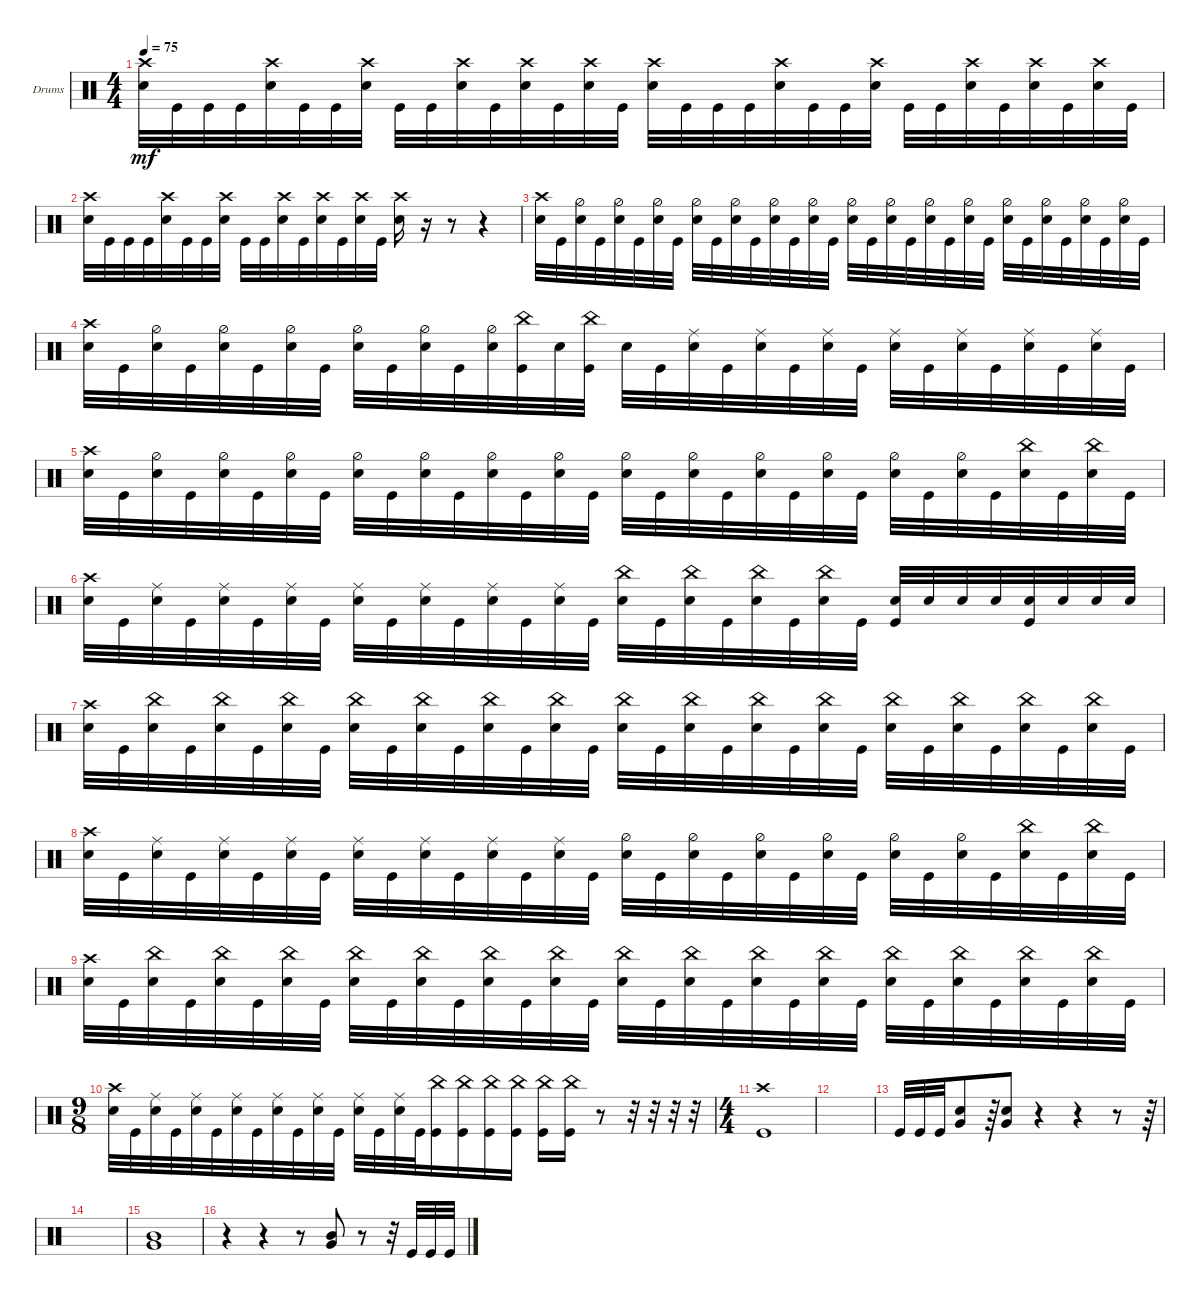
\defaultSystemsLayout 4
\bracketExtendMode groupsimilarinstruments
\firstSystemTrackNameOrientation horizontal
\otherSystemsTrackNameOrientation horizontal
\track ("Drumkit" "Drums") {instrument percussion}
\staff {score}
\articulation defaults
\ts (4 4)
\tempo 75
\clef neutral
\ks c
("Snare (hit) 2" "Crash high (hit)").32{dy mf} "Kick (hit)".32 "Kick (hit)".32 "Kick (hit)".32 ("Snare (hit) 2" "Crash high (hit)").32 "Kick (hit)".32 "Kick (hit)".32 ("Snare (hit) 2" "Crash high (hit)").32 "Kick (hit)".32 "Kick (hit)".32 ("Snare (hit) 2" "Crash high (hit)").32 "Kick (hit)".32 ("Snare (hit) 2" "Crash high (hit)").32 "Kick (hit)".32 ("Snare (hit) 2" "Crash high (hit)").32 "Kick (hit)".32 ("Snare (hit) 2" "Crash high (hit)").32 "Kick (hit)".32 "Kick (hit)".32 "Kick (hit)".32 ("Snare (hit) 2" "Crash high (hit)").32 "Kick (hit)".32 "Kick (hit)".32 ("Snare (hit) 2" "Crash high (hit)").32 "Kick (hit)".32 "Kick (hit)".32 ("Snare (hit) 2" "Crash high (hit)").32 "Kick (hit)".32 ("Snare (hit) 2" "Crash high (hit)").32 "Kick (hit)".32 ("Snare (hit) 2" "Crash high (hit)").32 "Kick (hit)".32 |
("Snare (hit) 2" "Crash high (hit)").32 "Kick (hit)".32 "Kick (hit)".32 "Kick (hit)".32 ("Snare (hit) 2" "Crash high (hit)").32 "Kick (hit)".32 "Kick (hit)".32 ("Snare (hit) 2" "Crash high (hit)").32 "Kick (hit)".32 "Kick (hit)".32 ("Snare (hit) 2" "Crash high (hit)").32 "Kick (hit)".32 ("Snare (hit) 2" "Crash high (hit)").32 "Kick (hit)".32 ("Snare (hit) 2" "Crash high (hit)").32 "Kick (hit)".32 ("Snare (hit) 2" "Crash high (hit)").16 r.16 r.8 r.4 |
("Snare (hit) 2" "Crash high (hit)").32 "Kick (hit)".32 ("Snare (hit) 2" "Hi-Hat (half)").32 "Kick (hit)".32 ("Snare (hit) 2" "Hi-Hat (half)").32 "Kick (hit)".32 ("Snare (hit) 2" "Hi-Hat (half)").32 "Kick (hit)".32 ("Snare (hit) 2" "Hi-Hat (half)").32 "Kick (hit)".32 ("Snare (hit) 2" "Hi-Hat (half)").32 "Kick (hit)".32 ("Snare (hit) 2" "Hi-Hat (half)").32 "Kick (hit)".32 ("Snare (hit) 2" "Hi-Hat (half)").32 "Kick (hit)".32 ("Snare (hit) 2" "Hi-Hat (half)").32 "Kick (hit)".32 ("Snare (hit) 2" "Hi-Hat (half)").32 "Kick (hit)".32 ("Snare (hit) 2" "Hi-Hat (half)").32 "Kick (hit)".32 ("Snare (hit) 2" "Hi-Hat (half)").32 "Kick (hit)".32 ("Snare (hit) 2" "Hi-Hat (half)").32 "Kick (hit)".32 ("Snare (hit) 2" "Hi-Hat (half)").32 "Kick (hit)".32 ("Snare (hit) 2" "Hi-Hat (half)").32 "Kick (hit)".32 ("Snare (hit) 2" "Hi-Hat (half)").32 "Kick (hit)".32 |
("Snare (hit) 2" "Crash high (hit)").32 "Kick (hit)".32 ("Snare (hit) 2" "Hi-Hat (half)").32 "Kick (hit)".32 ("Snare (hit) 2" "Hi-Hat (half)").32 "Kick (hit)".32 ("Snare (hit) 2" "Hi-Hat (half)").32 "Kick (hit)".32 ("Snare (hit) 2" "Hi-Hat (half)").32 "Kick (hit)".32 ("Snare (hit) 2" "Hi-Hat (half)").32 "Kick (hit)".32 ("Snare (hit) 2" "Hi-Hat (half)").32 ("Kick (hit)" "China (hit)").32 "Snare (hit) 2".32 ("Kick (hit)" "China (hit)").32 "Snare (hit) 2".32 "Kick (hit)".32 ("Snare (hit) 2" "Ride (middle)").32 "Kick (hit)".32 ("Snare (hit) 2" "Ride (middle)").32 "Kick (hit)".32 ("Snare (hit) 2" "Ride (middle)").32 "Kick (hit)".32 ("Snare (hit) 2" "Ride (middle)").32 "Kick (hit)".32 ("Snare (hit) 2" "Ride (middle)").32 "Kick (hit)".32 ("Snare (hit) 2" "Ride (middle)").32 "Kick (hit)".32 ("Snare (hit) 2" "Ride (middle)").32 "Kick (hit)".32 |
("Snare (hit) 2" "Crash high (hit)").32 "Kick (hit)".32 ("Snare (hit) 2" "Hi-Hat (half)").32 "Kick (hit)".32 ("Snare (hit) 2" "Hi-Hat (half)").32 "Kick (hit)".32 ("Snare (hit) 2" "Hi-Hat (half)").32 "Kick (hit)".32 ("Snare (hit) 2" "Hi-Hat (half)").32 "Kick (hit)".32 ("Snare (hit) 2" "Hi-Hat (half)").32 "Kick (hit)".32 ("Snare (hit) 2" "Hi-Hat (half)").32 "Kick (hit)".32 ("Snare (hit) 2" "Hi-Hat (half)").32 "Kick (hit)".32 ("Snare (hit) 2" "Hi-Hat (half)").32 "Kick (hit)".32 ("Snare (hit) 2" "Hi-Hat (half)").32 "Kick (hit)".32 ("Snare (hit) 2" "Hi-Hat (half)").32 "Kick (hit)".32 ("Snare (hit) 2" "Hi-Hat (half)").32 "Kick (hit)".32 ("Snare (hit) 2" "Hi-Hat (half)").32 "Kick (hit)".32 ("Snare (hit) 2" "Hi-Hat (half)").32 "Kick (hit)".32 ("Snare (hit) 2" "China (hit)").32 "Kick (hit)".32 ("Snare (hit) 2" "China (hit)").32 "Kick (hit)".32 |
("Snare (hit) 2" "Crash high (hit)").32 "Kick (hit)".32 ("Snare (hit) 2" "Ride (middle)").32 "Kick (hit)".32 ("Snare (hit) 2" "Ride (middle)").32 "Kick (hit)".32 ("Snare (hit) 2" "Ride (middle)").32 "Kick (hit)".32 ("Snare (hit) 2" "Ride (middle)").32 "Kick (hit)".32 ("Snare (hit) 2" "Ride (middle)").32 "Kick (hit)".32 ("Snare (hit) 2" "Ride (middle)").32 "Kick (hit)".32 ("Snare (hit) 2" "Ride (middle)").32 "Kick (hit)".32 ("Snare (hit) 2" "China (hit)").32 "Kick (hit)".32 ("Snare (hit) 2" "China (hit)").32 "Kick (hit)".32 ("Snare (hit) 2" "China (hit)").32 "Kick (hit)".32 ("Snare (hit) 2" "China (hit)").32 "Kick (hit)".32 ("Snare (hit) 2" "Kick (hit)").32 "Snare (hit) 2".32 "Snare (hit) 2".32 "Snare (hit) 2".32 ("Snare (hit) 2" "Kick (hit)").32 "Snare (hit) 2".32 "Snare (hit) 2".32 "Snare (hit) 2".32 |
("Snare (hit) 2" "Crash high (hit)").32 "Kick (hit)".32 ("Snare (hit) 2" "China (hit)").32 "Kick (hit)".32 ("Snare (hit) 2" "China (hit)").32 "Kick (hit)".32 ("Snare (hit) 2" "China (hit)").32 "Kick (hit)".32 ("Snare (hit) 2" "China (hit)").32 "Kick (hit)".32 ("Snare (hit) 2" "China (hit)").32 "Kick (hit)".32 ("Snare (hit) 2" "China (hit)").32 "Kick (hit)".32 ("Snare (hit) 2" "China (hit)").32 "Kick (hit)".32 ("Snare (hit) 2" "China (hit)").32 "Kick (hit)".32 ("Snare (hit) 2" "China (hit)").32 "Kick (hit)".32 ("Snare (hit) 2" "China (hit)").32 "Kick (hit)".32 ("Snare (hit) 2" "China (hit)").32 "Kick (hit)".32 ("Snare (hit) 2" "China (hit)").32 "Kick (hit)".32 ("Snare (hit) 2" "China (hit)").32 "Kick (hit)".32 ("Snare (hit) 2" "China (hit)").32 "Kick (hit)".32 ("Snare (hit) 2" "China (hit)").32 "Kick (hit)".32 |
("Snare (hit) 2" "Crash high (hit)").32 "Kick (hit)".32 ("Snare (hit) 2" "Ride (middle)").32 "Kick (hit)".32 ("Snare (hit) 2" "Ride (middle)").32 "Kick (hit)".32 ("Snare (hit) 2" "Ride (middle)").32 "Kick (hit)".32 ("Snare (hit) 2" "Ride (middle)").32 "Kick (hit)".32 ("Snare (hit) 2" "Ride (middle)").32 "Kick (hit)".32 ("Snare (hit) 2" "Ride (middle)").32 "Kick (hit)".32 ("Snare (hit) 2" "Ride (middle)").32 "Kick (hit)".32 ("Snare (hit) 2" "Hi-Hat (half)").32 "Kick (hit)".32 ("Snare (hit) 2" "Hi-Hat (half)").32 "Kick (hit)".32 ("Snare (hit) 2" "Hi-Hat (half)").32 "Kick (hit)".32 ("Snare (hit) 2" "Hi-Hat (half)").32 "Kick (hit)".32 ("Snare (hit) 2" "Hi-Hat (half)").32 "Kick (hit)".32 ("Snare (hit) 2" "Hi-Hat (half)").32 "Kick (hit)".32 ("Snare (hit) 2" "China (hit)").32 "Kick (hit)".32 ("Snare (hit) 2" "China (hit)").32 "Kick (hit)".32 |
("Snare (hit) 2" "Crash high (hit)").32 "Kick (hit)".32 ("Snare (hit) 2" "China (hit)").32 "Kick (hit)".32 ("Snare (hit) 2" "China (hit)").32 "Kick (hit)".32 ("Snare (hit) 2" "China (hit)").32 "Kick (hit)".32 ("Snare (hit) 2" "China (hit)").32 "Kick (hit)".32 ("Snare (hit) 2" "China (hit)").32 "Kick (hit)".32 ("Snare (hit) 2" "China (hit)").32 "Kick (hit)".32 ("Snare (hit) 2" "China (hit)").32 "Kick (hit)".32 ("Snare (hit) 2" "China (hit)").32 "Kick (hit)".32 ("Snare (hit) 2" "China (hit)").32 "Kick (hit)".32 ("Snare (hit) 2" "China (hit)").32 "Kick (hit)".32 ("Snare (hit) 2" "China (hit)").32 "Kick (hit)".32 ("Snare (hit) 2" "China (hit)").32 "Kick (hit)".32 ("Snare (hit) 2" "China (hit)").32 "Kick (hit)".32 ("Snare (hit) 2" "China (hit)").32 "Kick (hit)".32 ("Snare (hit) 2" "China (hit)").32 "Kick (hit)".32 |
\ts (9 8)
("Snare (hit) 2" "Crash high (hit)").32 "Kick (hit)".32 ("Snare (hit) 2" "Ride (middle)").32 "Kick (hit)".32 ("Snare (hit) 2" "Ride (middle)").32 "Kick (hit)".32 ("Snare (hit) 2" "Ride (middle)").32 "Kick (hit)".32 ("Snare (hit) 2" "Ride (middle)").32 "Kick (hit)".32 ("Snare (hit) 2" "Ride (middle)").32 "Kick (hit)".32 ("Snare (hit) 2" "Ride (middle)").32 "Kick (hit)".32 ("Snare (hit) 2" "Ride (middle)").32 "Kick (hit)".32 ("Kick (hit)" "China (hit)").16 ("Kick (hit)" "China (hit)").16 ("Kick (hit)" "China (hit)").16 ("Kick (hit)" "China (hit)").16 ("Kick (hit)" "China (hit)").16 ("Kick (hit)" "China (hit)").16 r.8 r.32 r.32 r.32 r.32 |
\ts (4 4)
("Kick (hit)" "Crash high (hit)").1 |
|
"Kick (hit)".32 "Kick (hit)".32 "Kick (hit)".32 ("Snare (hit) 2" "Very Low Tom (hit)").8 r.64 ("Snare (hit) 2" "Very Low Tom (hit)").8 r.4 r.4 r.8 r.64 |
|
("Mid Tom (hit)" "Very Low Tom (hit)").1 |
r.4 r.4 r.8 ("Very Low Tom (hit)" "Mid Tom (hit)").8 r.8 r.32 "Kick (hit)".32 "Kick (hit)".32 "Kick (hit)".32
